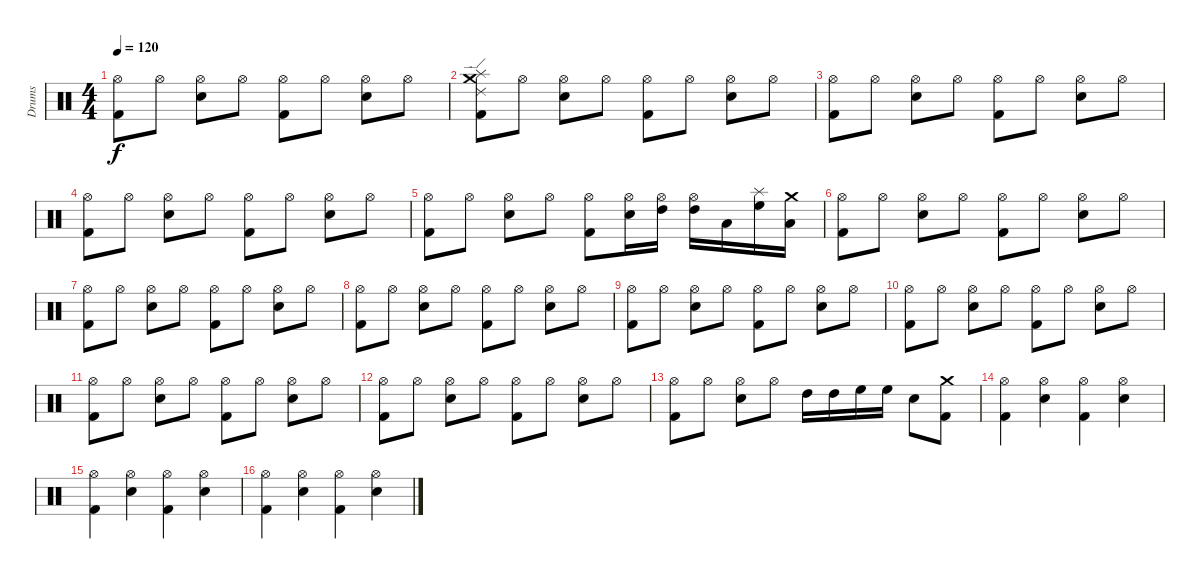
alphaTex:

\track ("Drums" "Drums") {instrument percussion}
\staff {score}
\articulation defaults
\ts (4 4)
\tempo 120
\clef neutral
\ks c
("Kick (hit) 2" "Hi-Hat (open)").8{dy f} "Hi-Hat (open)".8 ("Snare (hit) 2" "Hi-Hat (open)").8 "Hi-Hat (open)".8 ("Kick (hit) 2" "Hi-Hat (open)").8 "Hi-Hat (open)".8 ("Snare (hit) 2" "Hi-Hat (open)").8 "Hi-Hat (open)".8 |
("Kick (hit) 2" "Ride (edge) 2" "Crash medium (hit)" "Splash (hit)").8 "Hi-Hat (open)".8 ("Snare (hit) 2" "Hi-Hat (open)").8 "Hi-Hat (open)".8 ("Kick (hit) 2" "Hi-Hat (open)").8 "Hi-Hat (open)".8 ("Snare (hit) 2" "Hi-Hat (open)").8 "Hi-Hat (open)".8 |
("Kick (hit) 2" "Hi-Hat (open)").8 "Hi-Hat (open)".8 ("Snare (hit) 2" "Hi-Hat (open)").8 "Hi-Hat (open)".8 ("Kick (hit) 2" "Hi-Hat (open)").8 "Hi-Hat (open)".8 ("Snare (hit) 2" "Hi-Hat (open)").8 "Hi-Hat (open)".8 |
("Kick (hit) 2" "Hi-Hat (open)").8 "Hi-Hat (open)".8 ("Snare (hit) 2" "Hi-Hat (open)").8 "Hi-Hat (open)".8 ("Kick (hit) 2" "Hi-Hat (open)").8 "Hi-Hat (open)".8 ("Snare (hit) 2" "Hi-Hat (open)").8 "Hi-Hat (open)".8 |
("Kick (hit) 2" "Hi-Hat (open)").8 "Hi-Hat (open)".8 ("Snare (hit) 2" "Hi-Hat (open)").8 "Hi-Hat (open)".8 ("Kick (hit) 2" "Hi-Hat (open)").8 ("Snare (hit) 2" "Hi-Hat (open)").16 ("High Tom (hit)" "Hi-Hat (open)").16 ("High Tom (hit)" "Hi-Hat (open)").16 "Low Tom (hit)".16 ("High Floor Tom (hit)" "Splash (hit)").16 ("Low Tom (hit)" "Crash medium (hit)").16 |
("Kick (hit) 2" "Hi-Hat (open)").8 "Hi-Hat (open)".8 ("Snare (hit) 2" "Hi-Hat (open)").8 "Hi-Hat (open)".8 ("Kick (hit) 2" "Hi-Hat (open)").8 "Hi-Hat (open)".8 ("Snare (hit) 2" "Hi-Hat (open)").8 "Hi-Hat (open)".8 |
("Kick (hit) 2" "Hi-Hat (open)").8 "Hi-Hat (open)".8 ("Snare (hit) 2" "Hi-Hat (open)").8 "Hi-Hat (open)".8 ("Kick (hit) 2" "Hi-Hat (open)").8 "Hi-Hat (open)".8 ("Snare (hit) 2" "Hi-Hat (open)").8 "Hi-Hat (open)".8 |
("Kick (hit) 2" "Hi-Hat (open)").8 "Hi-Hat (open)".8 ("Snare (hit) 2" "Hi-Hat (open)").8 "Hi-Hat (open)".8 ("Kick (hit) 2" "Hi-Hat (open)").8 "Hi-Hat (open)".8 ("Snare (hit) 2" "Hi-Hat (open)").8 "Hi-Hat (open)".8 |
("Kick (hit) 2" "Hi-Hat (open)").8 "Hi-Hat (open)".8 ("Snare (hit) 2" "Hi-Hat (open)").8 "Hi-Hat (open)".8 ("Kick (hit) 2" "Hi-Hat (open)").8 "Hi-Hat (open)".8 ("Snare (hit) 2" "Hi-Hat (open)").8 "Hi-Hat (open)".8 |
("Kick (hit) 2" "Hi-Hat (open)").8 "Hi-Hat (open)".8 ("Snare (hit) 2" "Hi-Hat (open)").8 "Hi-Hat (open)".8 ("Kick (hit) 2" "Hi-Hat (open)").8 "Hi-Hat (open)".8 ("Snare (hit) 2" "Hi-Hat (open)").8 "Hi-Hat (open)".8 |
("Kick (hit) 2" "Hi-Hat (open)").8 "Hi-Hat (open)".8 ("Snare (hit) 2" "Hi-Hat (open)").8 "Hi-Hat (open)".8 ("Kick (hit) 2" "Hi-Hat (open)").8 "Hi-Hat (open)".8 ("Snare (hit) 2" "Hi-Hat (open)").8 "Hi-Hat (open)".8 |
("Kick (hit) 2" "Hi-Hat (open)").8 "Hi-Hat (open)".8 ("Snare (hit) 2" "Hi-Hat (open)").8 "Hi-Hat (open)".8 ("Kick (hit) 2" "Hi-Hat (open)").8 "Hi-Hat (open)".8 ("Snare (hit) 2" "Hi-Hat (open)").8 "Hi-Hat (open)".8 |
("Kick (hit) 2" "Hi-Hat (open)").8 "Hi-Hat (open)".8 ("Snare (hit) 2" "Hi-Hat (open)").8 "Hi-Hat (open)".8 "High Tom (hit)".16 "High Tom (hit)".16 "High Floor Tom (hit)".16 "High Floor Tom (hit)".16 "Snare (hit) 2".8 ("Kick (hit) 2" "Crash medium (hit)").8 |
("Kick (hit) 2" "Hi-Hat (open)").4 ("Snare (hit) 2" "Hi-Hat (open)").4 ("Kick (hit) 2" "Hi-Hat (open)").4 ("Snare (hit) 2" "Hi-Hat (open)").4 |
("Kick (hit) 2" "Hi-Hat (open)").4 ("Snare (hit) 2" "Hi-Hat (open)").4 ("Kick (hit) 2" "Hi-Hat (open)").4 ("Snare (hit) 2" "Hi-Hat (open)").4 |
("Kick (hit) 2" "Hi-Hat (open)").4 ("Snare (hit) 2" "Hi-Hat (open)").4 ("Kick (hit) 2" "Hi-Hat (open)").4 ("Snare (hit) 2" "Hi-Hat (open)").4
